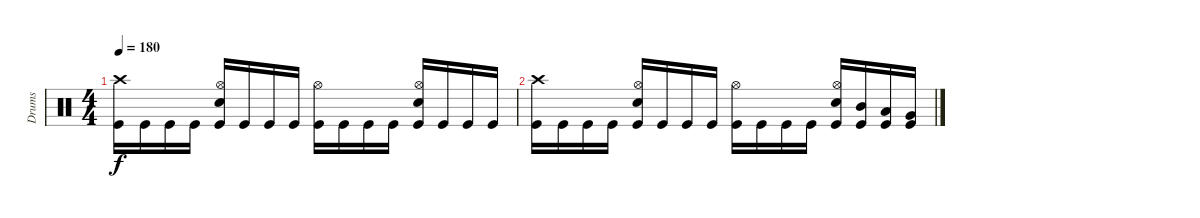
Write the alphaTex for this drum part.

\track ("Drums" "Drums") {instrument percussion}
\staff {score}
\articulation defaults
\ts (4 4)
\tempo 180
\clef neutral
\ks c
("Crash high (hit)" "Kick (hit)").16{dy f} "Kick (hit)".16 "Kick (hit)".16 "Kick (hit)".16 ("Hi-Hat (open)" "Snare (hit) 2" "Kick (hit)").16 "Kick (hit)".16 "Kick (hit)".16 "Kick (hit)".16 ("Hi-Hat (open)" "Kick (hit)").16 "Kick (hit)".16 "Kick (hit)".16 "Kick (hit)".16 ("Hi-Hat (open)" "Snare (hit) 2" "Kick (hit)").16 "Kick (hit)".16 "Kick (hit)".16 "Kick (hit)".16 |
("Crash high (hit)" "Kick (hit)").16 "Kick (hit)".16 "Kick (hit)".16 "Kick (hit)".16 ("Hi-Hat (open)" "Snare (hit) 2" "Kick (hit)").16 "Kick (hit)".16 "Kick (hit)".16 "Kick (hit)".16 ("Hi-Hat (open)" "Kick (hit)").16 "Kick (hit)".16 "Kick (hit)".16 "Kick (hit)".16 ("Hi-Hat (open)" "Snare (hit) 2" "Kick (hit)").16 ("Mid Tom (hit)" "Kick (hit)").16 ("Low Tom (hit)" "Kick (hit)").16 ("Very Low Tom (hit)" "Kick (hit)").16
